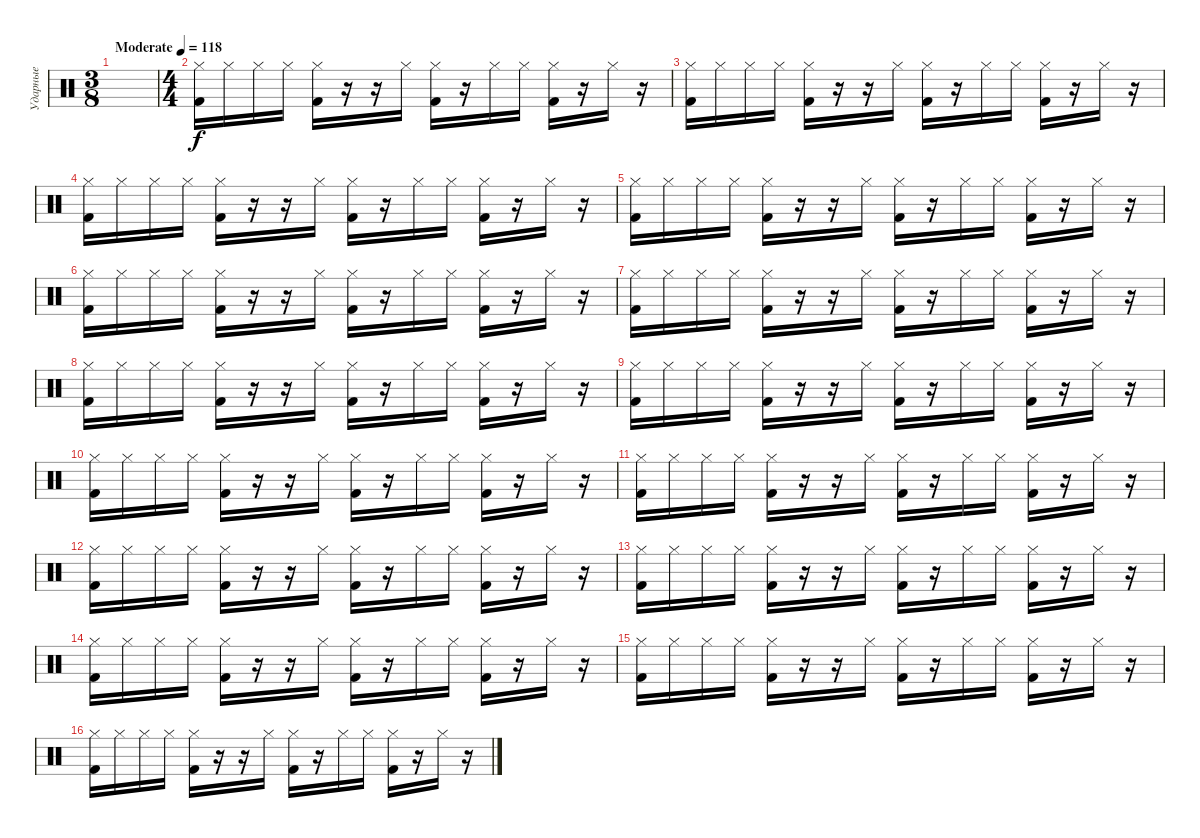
\track ("Ударные" "Ударные") {instrument percussion}
\staff {score}
\articulation defaults
\ts (3 8)
\tempo (118 "Moderate")
\clef neutral
\ks c
|
\ts (4 4)
("Hi-Hat (closed)" "Kick (hit) 2").16 "Hi-Hat (closed)".16 "Hi-Hat (closed)".16 "Hi-Hat (closed)".16 ("Hi-Hat (closed)" "Kick (hit) 2").16 r.16 r.16 "Hi-Hat (closed)".16 ("Hi-Hat (closed)" "Kick (hit) 2").16 r.16 "Hi-Hat (closed)".16 "Hi-Hat (closed)".16 ("Hi-Hat (closed)" "Kick (hit) 2").16 r.16 "Hi-Hat (closed)".16 r.16 |
("Hi-Hat (closed)" "Kick (hit) 2").16 "Hi-Hat (closed)".16 "Hi-Hat (closed)".16 "Hi-Hat (closed)".16 ("Hi-Hat (closed)" "Kick (hit) 2").16 r.16 r.16 "Hi-Hat (closed)".16 ("Hi-Hat (closed)" "Kick (hit) 2").16 r.16 "Hi-Hat (closed)".16 "Hi-Hat (closed)".16 ("Hi-Hat (closed)" "Kick (hit) 2").16 r.16 "Hi-Hat (closed)".16 r.16 |
("Hi-Hat (closed)" "Kick (hit) 2").16 "Hi-Hat (closed)".16 "Hi-Hat (closed)".16 "Hi-Hat (closed)".16 ("Hi-Hat (closed)" "Kick (hit) 2").16 r.16 r.16 "Hi-Hat (closed)".16 ("Hi-Hat (closed)" "Kick (hit) 2").16 r.16 "Hi-Hat (closed)".16 "Hi-Hat (closed)".16 ("Hi-Hat (closed)" "Kick (hit) 2").16 r.16 "Hi-Hat (closed)".16 r.16 |
("Hi-Hat (closed)" "Kick (hit) 2").16 "Hi-Hat (closed)".16 "Hi-Hat (closed)".16 "Hi-Hat (closed)".16 ("Hi-Hat (closed)" "Kick (hit) 2").16 r.16 r.16 "Hi-Hat (closed)".16 ("Hi-Hat (closed)" "Kick (hit) 2").16 r.16 "Hi-Hat (closed)".16 "Hi-Hat (closed)".16 ("Hi-Hat (closed)" "Kick (hit) 2").16 r.16 "Hi-Hat (closed)".16 r.16 |
("Hi-Hat (closed)" "Kick (hit) 2").16 "Hi-Hat (closed)".16 "Hi-Hat (closed)".16 "Hi-Hat (closed)".16 ("Hi-Hat (closed)" "Kick (hit) 2").16 r.16 r.16 "Hi-Hat (closed)".16 ("Hi-Hat (closed)" "Kick (hit) 2").16 r.16 "Hi-Hat (closed)".16 "Hi-Hat (closed)".16 ("Hi-Hat (closed)" "Kick (hit) 2").16 r.16 "Hi-Hat (closed)".16 r.16 |
("Hi-Hat (closed)" "Kick (hit) 2").16 "Hi-Hat (closed)".16 "Hi-Hat (closed)".16 "Hi-Hat (closed)".16 ("Hi-Hat (closed)" "Kick (hit) 2").16 r.16 r.16 "Hi-Hat (closed)".16 ("Hi-Hat (closed)" "Kick (hit) 2").16 r.16 "Hi-Hat (closed)".16 "Hi-Hat (closed)".16 ("Hi-Hat (closed)" "Kick (hit) 2").16 r.16 "Hi-Hat (closed)".16 r.16 |
("Hi-Hat (closed)" "Kick (hit) 2").16 "Hi-Hat (closed)".16 "Hi-Hat (closed)".16 "Hi-Hat (closed)".16 ("Hi-Hat (closed)" "Kick (hit) 2").16 r.16 r.16 "Hi-Hat (closed)".16 ("Hi-Hat (closed)" "Kick (hit) 2").16 r.16 "Hi-Hat (closed)".16 "Hi-Hat (closed)".16 ("Hi-Hat (closed)" "Kick (hit) 2").16 r.16 "Hi-Hat (closed)".16 r.16 |
("Hi-Hat (closed)" "Kick (hit) 2").16 "Hi-Hat (closed)".16 "Hi-Hat (closed)".16 "Hi-Hat (closed)".16 ("Hi-Hat (closed)" "Kick (hit) 2").16 r.16 r.16 "Hi-Hat (closed)".16 ("Hi-Hat (closed)" "Kick (hit) 2").16 r.16 "Hi-Hat (closed)".16 "Hi-Hat (closed)".16 ("Hi-Hat (closed)" "Kick (hit) 2").16 r.16 "Hi-Hat (closed)".16 r.16 |
("Hi-Hat (closed)" "Kick (hit) 2").16 "Hi-Hat (closed)".16 "Hi-Hat (closed)".16 "Hi-Hat (closed)".16 ("Hi-Hat (closed)" "Kick (hit) 2").16 r.16 r.16 "Hi-Hat (closed)".16 ("Hi-Hat (closed)" "Kick (hit) 2").16 r.16 "Hi-Hat (closed)".16 "Hi-Hat (closed)".16 ("Hi-Hat (closed)" "Kick (hit) 2").16 r.16 "Hi-Hat (closed)".16 r.16 |
("Hi-Hat (closed)" "Kick (hit) 2").16 "Hi-Hat (closed)".16 "Hi-Hat (closed)".16 "Hi-Hat (closed)".16 ("Hi-Hat (closed)" "Kick (hit) 2").16 r.16 r.16 "Hi-Hat (closed)".16 ("Hi-Hat (closed)" "Kick (hit) 2").16 r.16 "Hi-Hat (closed)".16 "Hi-Hat (closed)".16 ("Hi-Hat (closed)" "Kick (hit) 2").16 r.16 "Hi-Hat (closed)".16 r.16 |
("Hi-Hat (closed)" "Kick (hit) 2").16 "Hi-Hat (closed)".16 "Hi-Hat (closed)".16 "Hi-Hat (closed)".16 ("Hi-Hat (closed)" "Kick (hit) 2").16 r.16 r.16 "Hi-Hat (closed)".16 ("Hi-Hat (closed)" "Kick (hit) 2").16 r.16 "Hi-Hat (closed)".16 "Hi-Hat (closed)".16 ("Hi-Hat (closed)" "Kick (hit) 2").16 r.16 "Hi-Hat (closed)".16 r.16 |
("Hi-Hat (closed)" "Kick (hit) 2").16 "Hi-Hat (closed)".16 "Hi-Hat (closed)".16 "Hi-Hat (closed)".16 ("Hi-Hat (closed)" "Kick (hit) 2").16 r.16 r.16 "Hi-Hat (closed)".16 ("Hi-Hat (closed)" "Kick (hit) 2").16 r.16 "Hi-Hat (closed)".16 "Hi-Hat (closed)".16 ("Hi-Hat (closed)" "Kick (hit) 2").16 r.16 "Hi-Hat (closed)".16 r.16 |
("Hi-Hat (closed)" "Kick (hit) 2").16 "Hi-Hat (closed)".16 "Hi-Hat (closed)".16 "Hi-Hat (closed)".16 ("Hi-Hat (closed)" "Kick (hit) 2").16 r.16 r.16 "Hi-Hat (closed)".16 ("Hi-Hat (closed)" "Kick (hit) 2").16 r.16 "Hi-Hat (closed)".16 "Hi-Hat (closed)".16 ("Hi-Hat (closed)" "Kick (hit) 2").16 r.16 "Hi-Hat (closed)".16 r.16 |
("Hi-Hat (closed)" "Kick (hit) 2").16 "Hi-Hat (closed)".16 "Hi-Hat (closed)".16 "Hi-Hat (closed)".16 ("Hi-Hat (closed)" "Kick (hit) 2").16 r.16 r.16 "Hi-Hat (closed)".16 ("Hi-Hat (closed)" "Kick (hit) 2").16 r.16 "Hi-Hat (closed)".16 "Hi-Hat (closed)".16 ("Hi-Hat (closed)" "Kick (hit) 2").16 r.16 "Hi-Hat (closed)".16 r.16 |
("Hi-Hat (closed)" "Kick (hit) 2").16 "Hi-Hat (closed)".16 "Hi-Hat (closed)".16 "Hi-Hat (closed)".16 ("Hi-Hat (closed)" "Kick (hit) 2").16 r.16 r.16 "Hi-Hat (closed)".16 ("Hi-Hat (closed)" "Kick (hit) 2").16 r.16 "Hi-Hat (closed)".16 "Hi-Hat (closed)".16 ("Hi-Hat (closed)" "Kick (hit) 2").16 r.16 "Hi-Hat (closed)".16 r.16
